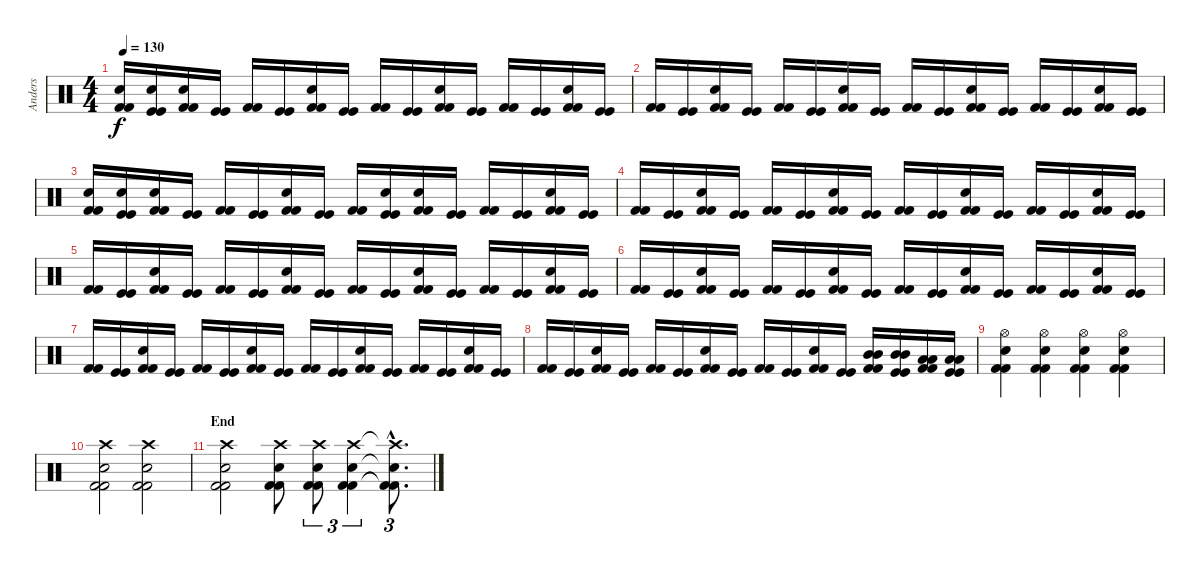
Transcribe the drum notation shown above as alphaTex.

\track ("Anders" "Anders") {instrument percussion}
\staff {score}
\articulation defaults
\ts (4 4)
\tempo 130
\clef neutral
\ks c
("Snare (hit) 2" "Kick (hit) 2" "Kick (hit) 2").16{dy f} ("Snare (hit) 2" "Kick (hit)" "Kick (hit)").16 ("Snare (hit) 2" "Kick (hit) 2" "Kick (hit) 2").16 ("Kick (hit)" "Kick (hit)").16 ("Kick (hit) 2" "Kick (hit) 2").16 ("Kick (hit)" "Kick (hit)").16 ("Snare (hit) 2" "Kick (hit) 2" "Kick (hit) 2").16 ("Kick (hit)" "Kick (hit)").16 ("Kick (hit) 2" "Kick (hit) 2").16 ("Kick (hit)" "Kick (hit)").16 ("Snare (hit) 2" "Kick (hit) 2" "Kick (hit) 2").16 ("Kick (hit)" "Kick (hit)").16 ("Kick (hit) 2" "Kick (hit) 2").16 ("Kick (hit)" "Kick (hit)").16 ("Snare (hit) 2" "Kick (hit) 2" "Kick (hit) 2").16 ("Kick (hit)" "Kick (hit)").16 |
("Kick (hit) 2" "Kick (hit) 2").16 ("Kick (hit)" "Kick (hit)").16 ("Snare (hit) 2" "Kick (hit) 2" "Kick (hit) 2").16 ("Kick (hit)" "Kick (hit)").16 ("Kick (hit) 2" "Kick (hit) 2").16 ("Kick (hit)" "Kick (hit)").16 ("Snare (hit) 2" "Kick (hit) 2" "Kick (hit) 2").16 ("Kick (hit)" "Kick (hit)").16 ("Kick (hit) 2" "Kick (hit) 2").16 ("Kick (hit)" "Kick (hit)").16 ("Snare (hit) 2" "Kick (hit) 2" "Kick (hit) 2").16 ("Kick (hit)" "Kick (hit)").16 ("Kick (hit) 2" "Kick (hit) 2").16 ("Kick (hit)" "Kick (hit)").16 ("Snare (hit) 2" "Kick (hit) 2" "Kick (hit) 2").16 ("Kick (hit)" "Kick (hit)").16 |
("Snare (hit) 2" "Kick (hit) 2" "Kick (hit) 2").16 ("Snare (hit) 2" "Kick (hit)" "Kick (hit)").16 ("Snare (hit) 2" "Kick (hit) 2" "Kick (hit) 2").16 ("Kick (hit)" "Kick (hit)").16 ("Kick (hit) 2" "Kick (hit) 2").16 ("Kick (hit)" "Kick (hit)").16 ("Snare (hit) 2" "Kick (hit) 2" "Kick (hit) 2").16 ("Kick (hit)" "Kick (hit)").16 ("Kick (hit) 2" "Kick (hit) 2").16 ("Snare (hit) 2" "Kick (hit)" "Kick (hit)").16 ("Snare (hit) 2" "Kick (hit) 2" "Kick (hit) 2").16 ("Kick (hit)" "Kick (hit)").16 ("Kick (hit) 2" "Kick (hit) 2").16 ("Kick (hit)" "Kick (hit)").16 ("Snare (hit) 2" "Kick (hit) 2" "Kick (hit) 2").16 ("Kick (hit)" "Kick (hit)").16 |
("Kick (hit) 2" "Kick (hit) 2").16 ("Kick (hit)" "Kick (hit)").16 ("Snare (hit) 2" "Kick (hit) 2" "Kick (hit) 2").16 ("Kick (hit)" "Kick (hit)").16 ("Kick (hit) 2" "Kick (hit) 2").16 ("Kick (hit)" "Kick (hit)").16 ("Snare (hit) 2" "Kick (hit) 2" "Kick (hit) 2").16 ("Kick (hit)" "Kick (hit)").16 ("Kick (hit) 2" "Kick (hit) 2").16 ("Kick (hit)" "Kick (hit)").16 ("Snare (hit) 2" "Kick (hit) 2" "Kick (hit) 2").16 ("Kick (hit)" "Kick (hit)").16 ("Kick (hit) 2" "Kick (hit) 2").16 ("Kick (hit)" "Kick (hit)").16 ("Snare (hit) 2" "Kick (hit) 2" "Kick (hit) 2").16 ("Kick (hit)" "Kick (hit)").16 |
("Kick (hit) 2" "Kick (hit) 2").16 ("Kick (hit)" "Kick (hit)").16 ("Snare (hit) 2" "Kick (hit) 2" "Kick (hit) 2").16 ("Kick (hit)" "Kick (hit)").16 ("Kick (hit) 2" "Kick (hit) 2").16 ("Kick (hit)" "Kick (hit)").16 ("Snare (hit) 2" "Kick (hit) 2" "Kick (hit) 2").16 ("Kick (hit)" "Kick (hit)").16 ("Kick (hit) 2" "Kick (hit) 2").16 ("Kick (hit)" "Kick (hit)").16 ("Snare (hit) 2" "Kick (hit) 2" "Kick (hit) 2").16 ("Kick (hit)" "Kick (hit)").16 ("Kick (hit) 2" "Kick (hit) 2").16 ("Kick (hit)" "Kick (hit)").16 ("Snare (hit) 2" "Kick (hit) 2" "Kick (hit) 2").16 ("Kick (hit)" "Kick (hit)").16 |
("Kick (hit) 2" "Kick (hit) 2").16 ("Kick (hit)" "Kick (hit)").16 ("Snare (hit) 2" "Kick (hit) 2" "Kick (hit) 2").16 ("Kick (hit)" "Kick (hit)").16 ("Kick (hit) 2" "Kick (hit) 2").16 ("Kick (hit)" "Kick (hit)").16 ("Snare (hit) 2" "Kick (hit) 2" "Kick (hit) 2").16 ("Kick (hit)" "Kick (hit)").16 ("Kick (hit) 2" "Kick (hit) 2").16 ("Kick (hit)" "Kick (hit)").16 ("Snare (hit) 2" "Kick (hit) 2" "Kick (hit) 2").16 ("Kick (hit)" "Kick (hit)").16 ("Kick (hit) 2" "Kick (hit) 2").16 ("Kick (hit)" "Kick (hit)").16 ("Snare (hit) 2" "Kick (hit) 2" "Kick (hit) 2").16 ("Kick (hit)" "Kick (hit)").16 |
("Kick (hit) 2" "Kick (hit) 2").16 ("Kick (hit)" "Kick (hit)").16 ("Snare (hit) 2" "Kick (hit) 2" "Kick (hit) 2").16 ("Kick (hit)" "Kick (hit)").16 ("Kick (hit) 2" "Kick (hit) 2").16 ("Kick (hit)" "Kick (hit)").16 ("Snare (hit) 2" "Kick (hit) 2" "Kick (hit) 2").16 ("Kick (hit)" "Kick (hit)").16 ("Kick (hit) 2" "Kick (hit) 2").16 ("Kick (hit)" "Kick (hit)").16 ("Snare (hit) 2" "Kick (hit) 2" "Kick (hit) 2").16 ("Kick (hit)" "Kick (hit)").16 ("Kick (hit) 2" "Kick (hit) 2").16 ("Kick (hit)" "Kick (hit)").16 ("Snare (hit) 2" "Kick (hit) 2" "Kick (hit) 2").16 ("Kick (hit)" "Kick (hit)").16 |
("Kick (hit) 2" "Kick (hit) 2").16 ("Kick (hit)" "Kick (hit)").16 ("Snare (hit) 2" "Kick (hit) 2" "Kick (hit) 2").16 ("Kick (hit)" "Kick (hit)").16 ("Kick (hit) 2" "Kick (hit) 2").16 ("Kick (hit)" "Kick (hit)").16 ("Snare (hit) 2" "Kick (hit) 2" "Kick (hit) 2").16 ("Kick (hit)" "Kick (hit)").16 ("Kick (hit) 2" "Kick (hit) 2").16 ("Kick (hit)" "Kick (hit)").16 ("Snare (hit) 2" "Kick (hit) 2" "Kick (hit) 2").16 ("Kick (hit)" "Kick (hit)").16 ("Mid Tom (hit)" "Mid Tom (hit)" "Kick (hit) 2" "Kick (hit) 2").16 ("Mid Tom (hit)" "Mid Tom (hit)" "Kick (hit)" "Kick (hit)").16 ("Low Tom (hit)" "Low Tom (hit)" "Kick (hit) 2" "Kick (hit) 2").16 ("Low Tom (hit)" "Low Tom (hit)" "Kick (hit)" "Kick (hit)").16 |
("Hi-Hat (open)" "Snare (hit) 2" "Kick (hit) 2" "Kick (hit) 2").4 ("Hi-Hat (open)" "Snare (hit) 2" "Kick (hit) 2" "Kick (hit) 2").4 ("Hi-Hat (open)" "Snare (hit) 2" "Kick (hit) 2" "Kick (hit) 2").4 ("Hi-Hat (open)" "Snare (hit) 2" "Kick (hit) 2" "Kick (hit) 2").4 |
("Crash high (hit)" "Snare (hit) 2" "Kick (hit) 2" "Kick (hit) 2").2 ("Crash high (hit)" "Snare (hit) 2" "Kick (hit) 2" "Kick (hit) 2").2 |
\section ("" "End")
("Crash high (hit)" "Snare (hit) 2" "Kick (hit) 2" "Kick (hit) 2").2 ("Crash high (hit)" "Snare (hit) 2" "Kick (hit) 2" "Kick (hit) 2").8 ("Crash high (hit)" "Snare (hit) 2" "Kick (hit) 2" "Kick (hit) 2").8{tu (3 2)} ("Crash high (hit)" "Snare (hit) 2" "Kick (hit) 2" "Kick (hit) 2").4{tu (3 2)} ("Crash high (hit)"{hac t} "Snare (hit) 2"{hac t} "Kick (hit) 2"{hac t} "Kick (hit) 2"{hac t}).8{d tu (3 2)}
